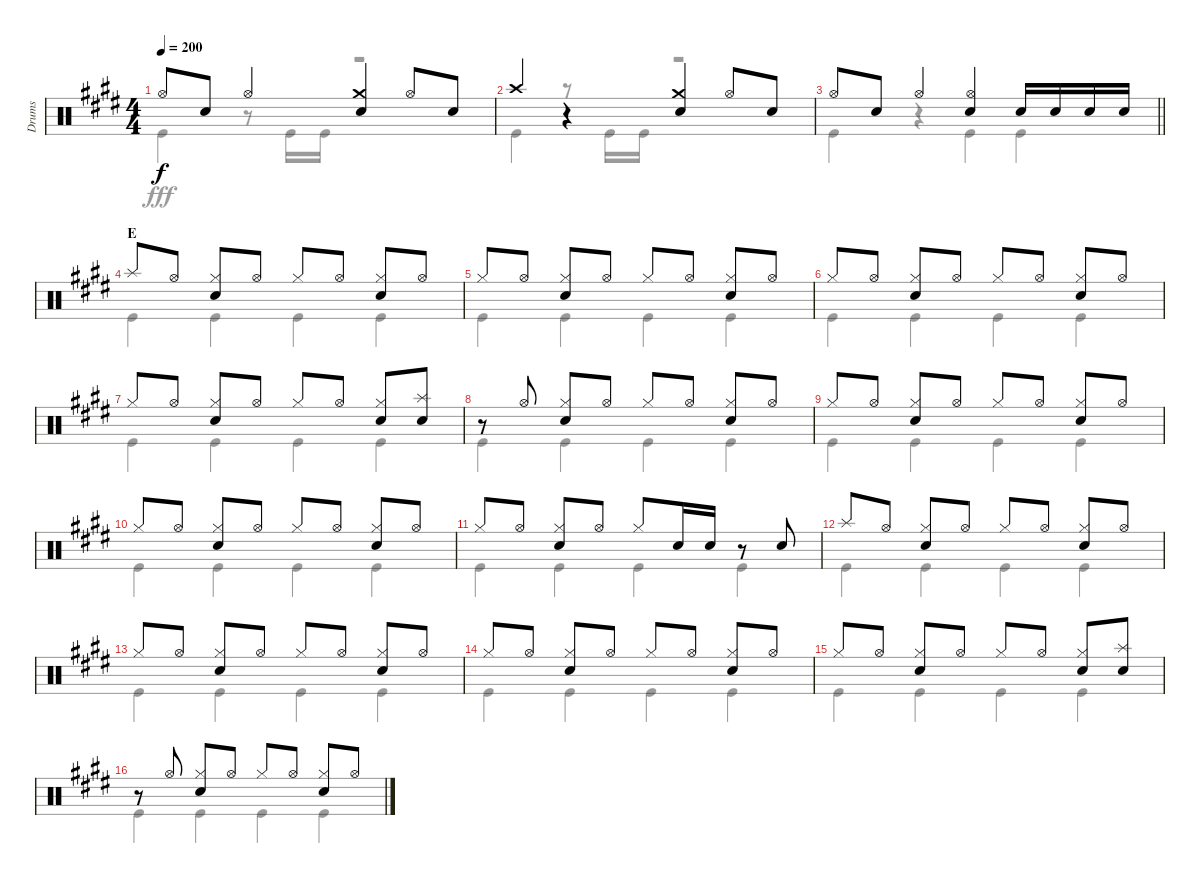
\track ("Drums" "Drums") {instrument percussion}
\staff {score}
\articulation defaults
\voice
\ts (4 4)
\tempo 200
\clef neutral
\ks e "Hi-Hat (open)".8{dy f} "Snare (hit) 2".8 "Hi-Hat (open)".4
("Crash medium (hit)" "Snare (hit) 2").4 "Hi-Hat (open)".8 "Snare (hit) 2".8 |
"Crash high (hit)".4 r.4 ("Crash medium (hit)" "Snare (hit) 2").4 "Hi-Hat (open)".8 "Snare (hit) 2".8 |
\barLineRight lightlight "Hi-Hat (open)".8 "Snare (hit) 2".8 "Hi-Hat (open)".4
("Hi-Hat (open)" "Snare (hit) 2").4 "Snare (hit) 2".16 "Snare (hit) 2".16 "Snare (hit) 2".16 "Snare (hit) 2".16 |
\section ("" "E")
"Splash (hit)".8 "Hi-Hat (open)".8 ("Hi-Hat (closed)" "Snare (hit) 2").8 "Hi-Hat (open)".8 "Hi-Hat (closed)".8 "Hi-Hat (open)".8 ("Hi-Hat (closed)" "Snare (hit) 2").8 "Hi-Hat (open)".8 |
"Hi-Hat (closed)".8 "Hi-Hat (open)".8 ("Hi-Hat (closed)" "Snare (hit) 2").8 "Hi-Hat (open)".8 "Hi-Hat (closed)".8 "Hi-Hat (open)".8 ("Hi-Hat (closed)" "Snare (hit) 2").8 "Hi-Hat (open)".8 |
"Hi-Hat (closed)".8 "Hi-Hat (open)".8 ("Hi-Hat (closed)" "Snare (hit) 2").8 "Hi-Hat (open)".8 "Hi-Hat (closed)".8 "Hi-Hat (open)".8 ("Hi-Hat (closed)" "Snare (hit) 2").8 "Hi-Hat (open)".8 |
"Hi-Hat (closed)".8 "Hi-Hat (open)".8 ("Hi-Hat (closed)" "Snare (hit) 2").8 "Hi-Hat (open)".8 "Hi-Hat (closed)".8 "Hi-Hat (open)".8 ("Hi-Hat (closed)" "Snare (hit) 2").8 ("Splash (hit)" "Snare (hit) 2").8 |
r.8 "Hi-Hat (open)".8 ("Hi-Hat (closed)" "Snare (hit) 2").8 "Hi-Hat (open)".8 "Hi-Hat (closed)".8 "Hi-Hat (open)".8 ("Hi-Hat (closed)" "Snare (hit) 2").8 "Hi-Hat (open)".8 |
"Hi-Hat (closed)".8 "Hi-Hat (open)".8 ("Hi-Hat (closed)" "Snare (hit) 2").8 "Hi-Hat (open)".8 "Hi-Hat (closed)".8 "Hi-Hat (open)".8 ("Hi-Hat (closed)" "Snare (hit) 2").8 "Hi-Hat (open)".8 |
"Hi-Hat (closed)".8 "Hi-Hat (open)".8 ("Hi-Hat (closed)" "Snare (hit) 2").8 "Hi-Hat (open)".8 "Hi-Hat (closed)".8 "Hi-Hat (open)".8 ("Hi-Hat (closed)" "Snare (hit) 2").8 "Hi-Hat (open)".8 |
"Hi-Hat (closed)".8 "Hi-Hat (open)".8 ("Hi-Hat (closed)" "Snare (hit) 2").8 "Hi-Hat (open)".8 "Hi-Hat (closed)".8 "Snare (hit) 2".16 "Snare (hit) 2".16 r.8 "Snare (hit) 2".8 |
"Splash (hit)".8 "Hi-Hat (open)".8 ("Hi-Hat (closed)" "Snare (hit) 2").8 "Hi-Hat (open)".8 "Hi-Hat (closed)".8 "Hi-Hat (open)".8 ("Hi-Hat (closed)" "Snare (hit) 2").8 "Hi-Hat (open)".8 |
"Hi-Hat (closed)".8 "Hi-Hat (open)".8 ("Hi-Hat (closed)" "Snare (hit) 2").8 "Hi-Hat (open)".8 "Hi-Hat (closed)".8 "Hi-Hat (open)".8 ("Hi-Hat (closed)" "Snare (hit) 2").8 "Hi-Hat (open)".8 |
"Hi-Hat (closed)".8 "Hi-Hat (open)".8 ("Hi-Hat (closed)" "Snare (hit) 2").8 "Hi-Hat (open)".8 "Hi-Hat (closed)".8 "Hi-Hat (open)".8 ("Hi-Hat (closed)" "Snare (hit) 2").8 "Hi-Hat (open)".8 |
"Hi-Hat (closed)".8 "Hi-Hat (open)".8 ("Hi-Hat (closed)" "Snare (hit) 2").8 "Hi-Hat (open)".8 "Hi-Hat (closed)".8 "Hi-Hat (open)".8 ("Hi-Hat (closed)" "Snare (hit) 2").8 ("Splash (hit)" "Snare (hit) 2").8 |
r.8 "Hi-Hat (open)".8 ("Hi-Hat (closed)" "Snare (hit) 2").8 "Hi-Hat (open)".8 "Hi-Hat (closed)".8 "Hi-Hat (open)".8 ("Hi-Hat (closed)" "Snare (hit) 2").8 "Hi-Hat (open)".8
\voice
\clef neutral
\ottava regular
\simile none
\ks e "Kick (hit)".4{dy fff}
r.8 "Kick (hit)".16 "Kick (hit)".16 r.2 |
"Kick (hit)".4 r.8 "Kick (hit)".16 "Kick (hit)".16 r.2 |
\barLineRight lightlight "Kick (hit)".4
r.4 "Kick (hit)".4 "Kick (hit)".4 |
"Kick (hit)".4 "Kick (hit)".4 "Kick (hit)".4 "Kick (hit)".4 |
"Kick (hit)".4 "Kick (hit)".4 "Kick (hit)".4 "Kick (hit)".4 |
"Kick (hit)".4 "Kick (hit)".4 "Kick (hit)".4 "Kick (hit)".4 |
"Kick (hit)".4 "Kick (hit)".4 "Kick (hit)".4 "Kick (hit)".4 |
"Kick (hit)".4 "Kick (hit)".4 "Kick (hit)".4 "Kick (hit)".4 |
"Kick (hit)".4 "Kick (hit)".4 "Kick (hit)".4 "Kick (hit)".4 |
"Kick (hit)".4 "Kick (hit)".4 "Kick (hit)".4 "Kick (hit)".4 |
"Kick (hit)".4 "Kick (hit)".4 "Kick (hit)".4 "Kick (hit)".4 |
"Kick (hit)".4 "Kick (hit)".4 "Kick (hit)".4 "Kick (hit)".4 |
"Kick (hit)".4 "Kick (hit)".4 "Kick (hit)".4 "Kick (hit)".4 |
"Kick (hit)".4 "Kick (hit)".4 "Kick (hit)".4 "Kick (hit)".4 |
"Kick (hit)".4 "Kick (hit)".4 "Kick (hit)".4 "Kick (hit)".4 |
"Kick (hit)".4 "Kick (hit)".4 "Kick (hit)".4 "Kick (hit)".4
